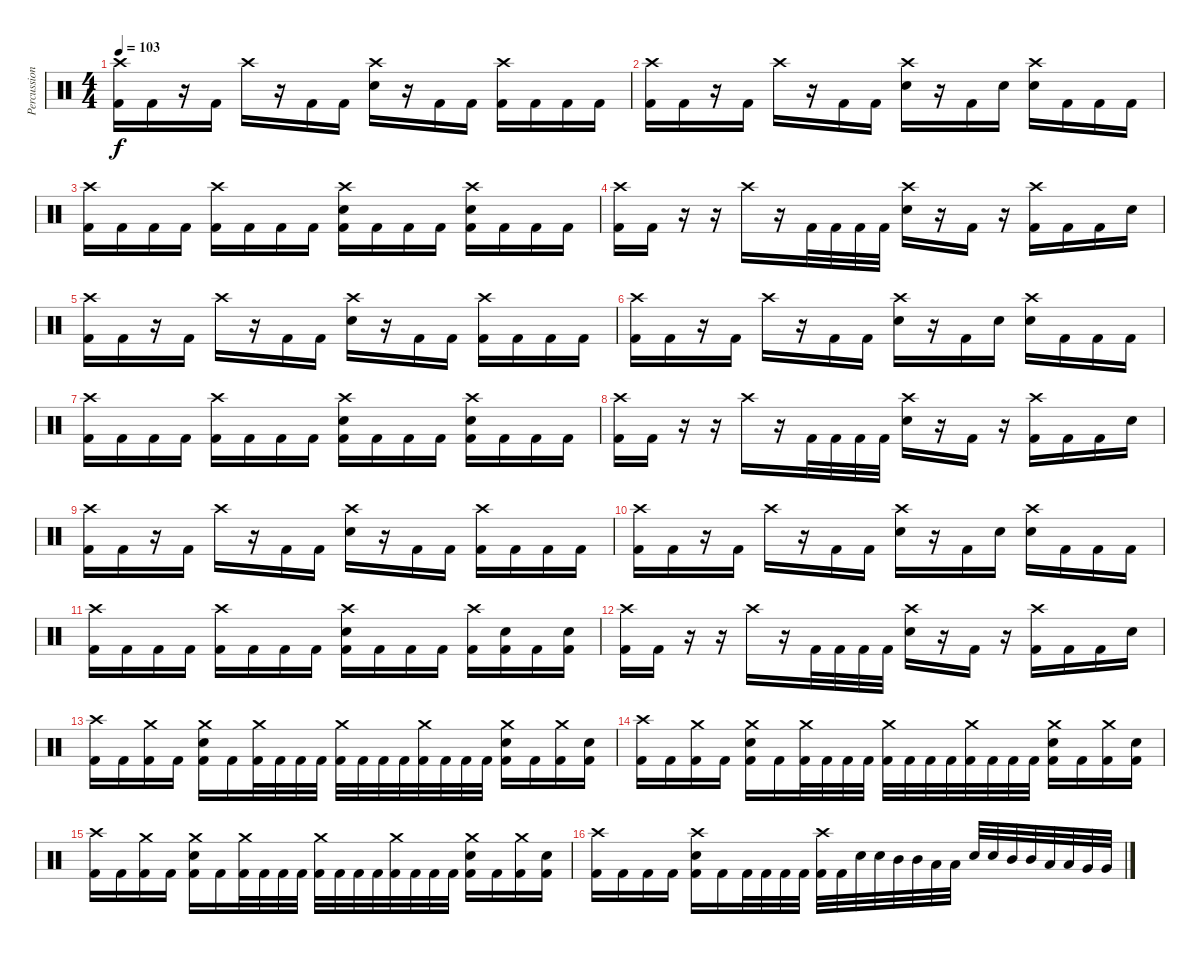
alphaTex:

\track ("Percussion" "Percussion") {instrument percussion}
\staff {score}
\articulation defaults
\ts (4 4)
\tempo 103
\clef neutral
\ks c
("Crash high (hit)" "Kick (hit) 2").16{dy f} "Kick (hit) 2".16 r.16 "Kick (hit) 2".16 "Crash high (hit)".16 r.16 "Kick (hit) 2".16 "Kick (hit) 2".16 ("Crash high (hit)" "Electric Snare (hit)").16 r.16 "Kick (hit) 2".16 "Kick (hit) 2".16 ("Crash high (hit)" "Kick (hit) 2").16 "Kick (hit) 2".16 "Kick (hit) 2".16 "Kick (hit) 2".16 |
("Crash high (hit)" "Kick (hit) 2").16 "Kick (hit) 2".16 r.16 "Kick (hit) 2".16 "Crash high (hit)".16 r.16 "Kick (hit) 2".16 "Kick (hit) 2".16 ("Crash high (hit)" "Electric Snare (hit)").16 r.16 "Kick (hit) 2".16 "Electric Snare (hit)".16 ("Crash high (hit)" "Electric Snare (hit)").16 "Kick (hit) 2".16 "Kick (hit) 2".16 "Kick (hit) 2".16 |
("Crash high (hit)" "Kick (hit) 2").16 "Kick (hit) 2".16 "Kick (hit) 2".16 "Kick (hit) 2".16 ("Crash high (hit)" "Kick (hit) 2").16 "Kick (hit) 2".16 "Kick (hit) 2".16 "Kick (hit) 2".16 ("Crash high (hit)" "Electric Snare (hit)" "Kick (hit) 2").16 "Kick (hit) 2".16 "Kick (hit) 2".16 "Kick (hit) 2".16 ("Crash high (hit)" "Electric Snare (hit)" "Kick (hit) 2").16 "Kick (hit) 2".16 "Kick (hit) 2".16 "Kick (hit) 2".16 |
("Crash high (hit)" "Kick (hit) 2").16 "Kick (hit) 2".16 r.16 r.16 "Crash high (hit)".16 r.16 "Kick (hit) 2".32 "Kick (hit) 2".32 "Kick (hit) 2".32 "Kick (hit) 2".32 ("Crash high (hit)" "Electric Snare (hit)").16 r.16 "Kick (hit) 2".16 r.16 ("Crash high (hit)" "Kick (hit) 2").16 "Kick (hit) 2".16 "Kick (hit) 2".16 "Electric Snare (hit)".16 |
("Crash high (hit)" "Kick (hit) 2").16 "Kick (hit) 2".16 r.16 "Kick (hit) 2".16 "Crash high (hit)".16 r.16 "Kick (hit) 2".16 "Kick (hit) 2".16 ("Crash high (hit)" "Electric Snare (hit)").16 r.16 "Kick (hit) 2".16 "Kick (hit) 2".16 ("Crash high (hit)" "Kick (hit) 2").16 "Kick (hit) 2".16 "Kick (hit) 2".16 "Kick (hit) 2".16 |
("Crash high (hit)" "Kick (hit) 2").16 "Kick (hit) 2".16 r.16 "Kick (hit) 2".16 "Crash high (hit)".16 r.16 "Kick (hit) 2".16 "Kick (hit) 2".16 ("Crash high (hit)" "Electric Snare (hit)").16 r.16 "Kick (hit) 2".16 "Electric Snare (hit)".16 ("Crash high (hit)" "Electric Snare (hit)").16 "Kick (hit) 2".16 "Kick (hit) 2".16 "Kick (hit) 2".16 |
("Crash high (hit)" "Kick (hit) 2").16 "Kick (hit) 2".16 "Kick (hit) 2".16 "Kick (hit) 2".16 ("Crash high (hit)" "Kick (hit) 2").16 "Kick (hit) 2".16 "Kick (hit) 2".16 "Kick (hit) 2".16 ("Crash high (hit)" "Electric Snare (hit)" "Kick (hit) 2").16 "Kick (hit) 2".16 "Kick (hit) 2".16 "Kick (hit) 2".16 ("Crash high (hit)" "Electric Snare (hit)" "Kick (hit) 2").16 "Kick (hit) 2".16 "Kick (hit) 2".16 "Kick (hit) 2".16 |
("Crash high (hit)" "Kick (hit) 2").16 "Kick (hit) 2".16 r.16 r.16 "Crash high (hit)".16 r.16 "Kick (hit) 2".32 "Kick (hit) 2".32 "Kick (hit) 2".32 "Kick (hit) 2".32 ("Crash high (hit)" "Electric Snare (hit)").16 r.16 "Kick (hit) 2".16 r.16 ("Crash high (hit)" "Kick (hit) 2").16 "Kick (hit) 2".16 "Kick (hit) 2".16 "Electric Snare (hit)".16 |
("Crash high (hit)" "Kick (hit) 2").16 "Kick (hit) 2".16 r.16 "Kick (hit) 2".16 "Crash high (hit)".16 r.16 "Kick (hit) 2".16 "Kick (hit) 2".16 ("Crash high (hit)" "Electric Snare (hit)").16 r.16 "Kick (hit) 2".16 "Kick (hit) 2".16 ("Crash high (hit)" "Kick (hit) 2").16 "Kick (hit) 2".16 "Kick (hit) 2".16 "Kick (hit) 2".16 |
("Crash high (hit)" "Kick (hit) 2").16 "Kick (hit) 2".16 r.16 "Kick (hit) 2".16 "Crash high (hit)".16 r.16 "Kick (hit) 2".16 "Kick (hit) 2".16 ("Crash high (hit)" "Electric Snare (hit)").16 r.16 "Kick (hit) 2".16 "Electric Snare (hit)".16 ("Crash high (hit)" "Electric Snare (hit)").16 "Kick (hit) 2".16 "Kick (hit) 2".16 "Kick (hit) 2".16 |
("Crash high (hit)" "Kick (hit) 2").16 "Kick (hit) 2".16 "Kick (hit) 2".16 "Kick (hit) 2".16 ("Crash high (hit)" "Kick (hit) 2").16 "Kick (hit) 2".16 "Kick (hit) 2".16 "Kick (hit) 2".16 ("Crash high (hit)" "Electric Snare (hit)" "Kick (hit) 2").16 "Kick (hit) 2".16 "Kick (hit) 2".16 "Kick (hit) 2".16 ("Crash high (hit)" "Kick (hit) 2").16 ("Electric Snare (hit)" "Kick (hit) 2").16 "Kick (hit) 2".16 ("Electric Snare (hit)" "Kick (hit) 2").16 |
("Crash high (hit)" "Kick (hit) 2").16 "Kick (hit) 2".16 r.16 r.16 "Crash high (hit)".16 r.16 "Kick (hit) 2".32 "Kick (hit) 2".32 "Kick (hit) 2".32 "Kick (hit) 2".32 ("Crash high (hit)" "Electric Snare (hit)").16 r.16 "Kick (hit) 2".16 r.16 ("Crash high (hit)" "Kick (hit) 2").16 "Kick (hit) 2".16 "Kick (hit) 2".16 "Electric Snare (hit)".16 |
("Crash high (hit)" "Kick (hit) 2").16 "Kick (hit) 2".16 ("Crash medium (hit)" "Kick (hit) 2").16 "Kick (hit) 2".16 ("Crash medium (hit)" "Electric Snare (hit)" "Kick (hit) 2").16 "Kick (hit) 2".16 ("Crash medium (hit)" "Kick (hit) 2").32 "Kick (hit) 2".32 "Kick (hit) 2".32 "Kick (hit) 2".32 ("Crash medium (hit)" "Kick (hit) 2").32 "Kick (hit) 2".32 "Kick (hit) 2".32 "Kick (hit) 2".32 ("Crash medium (hit)" "Kick (hit) 2").32 "Kick (hit) 2".32 "Kick (hit) 2".32 "Kick (hit) 2".32 ("Crash medium (hit)" "Electric Snare (hit)" "Kick (hit) 2").16 "Kick (hit) 2".16 ("Crash medium (hit)" "Kick (hit) 2").16 ("Electric Snare (hit)" "Kick (hit) 2").16 |
("Crash high (hit)" "Kick (hit) 2").16 "Kick (hit) 2".16 ("Crash medium (hit)" "Kick (hit) 2").16 "Kick (hit) 2".16 ("Crash medium (hit)" "Electric Snare (hit)" "Kick (hit) 2").16 "Kick (hit) 2".16 ("Crash medium (hit)" "Kick (hit) 2").32 "Kick (hit) 2".32 "Kick (hit) 2".32 "Kick (hit) 2".32 ("Crash medium (hit)" "Kick (hit) 2").32 "Kick (hit) 2".32 "Kick (hit) 2".32 "Kick (hit) 2".32 ("Crash medium (hit)" "Kick (hit) 2").32 "Kick (hit) 2".32 "Kick (hit) 2".32 "Kick (hit) 2".32 ("Crash medium (hit)" "Electric Snare (hit)" "Kick (hit) 2").16 "Kick (hit) 2".16 ("Crash medium (hit)" "Kick (hit) 2").16 ("Electric Snare (hit)" "Kick (hit) 2").16 |
("Crash high (hit)" "Kick (hit) 2").16 "Kick (hit) 2".16 ("Crash medium (hit)" "Kick (hit) 2").16 "Kick (hit) 2".16 ("Crash medium (hit)" "Electric Snare (hit)" "Kick (hit) 2").16 "Kick (hit) 2".16 ("Crash medium (hit)" "Kick (hit) 2").32 "Kick (hit) 2".32 "Kick (hit) 2".32 "Kick (hit) 2".32 ("Crash medium (hit)" "Kick (hit) 2").32 "Kick (hit) 2".32 "Kick (hit) 2".32 "Kick (hit) 2".32 ("Crash medium (hit)" "Kick (hit) 2").32 "Kick (hit) 2".32 "Kick (hit) 2".32 "Kick (hit) 2".32 ("Crash medium (hit)" "Electric Snare (hit)" "Kick (hit) 2").16 "Kick (hit) 2".16 ("Crash medium (hit)" "Kick (hit) 2").16 ("Electric Snare (hit)" "Kick (hit) 2").16 |
("Crash high (hit)" "Kick (hit) 2").16 "Kick (hit) 2".16 "Kick (hit) 2".16 "Kick (hit) 2".16 ("Crash high (hit)" "Electric Snare (hit)" "Kick (hit) 2").16 "Kick (hit) 2".16 "Kick (hit) 2".32 "Kick (hit) 2".32 "Kick (hit) 2".32 "Kick (hit) 2".32 ("Crash high (hit)" "Kick (hit) 2").32 "Kick (hit) 2".32 "Electric Snare (hit)".32 "Electric Snare (hit)".32 "Mid Tom (hit)".32 "Mid Tom (hit)".32 "Low Tom (hit)".32 "Low Tom (hit)".32 "Electric Snare (hit)".32 "Electric Snare (hit)".32 "Mid Tom (hit)".32 "Mid Tom (hit)".32 "Low Tom (hit)".32 "Low Tom (hit)".32 "Very Low Tom (hit)".32 "Very Low Tom (hit)".32
